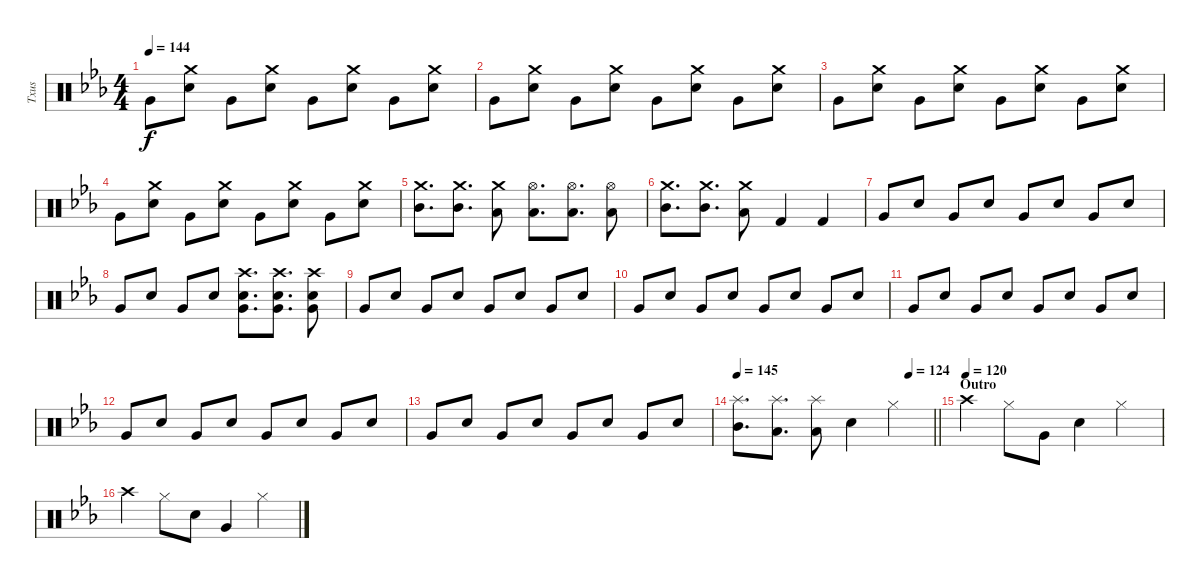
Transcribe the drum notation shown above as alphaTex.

\track ("Txus" "Txus") {instrument percussion}
\staff {score}
\articulation defaults
\ts (4 4)
\tempo 144
\clef neutral
\ks eb "Very Low Tom (hit)".8{dy f}
("Electric Snare (hit)" "Crash medium (hit)").8 "Very Low Tom (hit)".8 ("Electric Snare (hit)" "Crash medium (hit)").8 "Very Low Tom (hit)".8 ("Electric Snare (hit)" "Crash medium (hit)").8 "Very Low Tom (hit)".8 ("Electric Snare (hit)" "Crash medium (hit)").8 |
"Very Low Tom (hit)".8 ("Electric Snare (hit)" "Crash medium (hit)").8 "Very Low Tom (hit)".8 ("Electric Snare (hit)" "Crash medium (hit)").8 "Very Low Tom (hit)".8 ("Electric Snare (hit)" "Crash medium (hit)").8 "Very Low Tom (hit)".8 ("Electric Snare (hit)" "Crash medium (hit)").8 |
"Very Low Tom (hit)".8 ("Electric Snare (hit)" "Crash medium (hit)").8 "Very Low Tom (hit)".8 ("Electric Snare (hit)" "Crash medium (hit)").8 "Very Low Tom (hit)".8 ("Electric Snare (hit)" "Crash medium (hit)").8 "Very Low Tom (hit)".8 ("Electric Snare (hit)" "Crash medium (hit)").8 |
"Very Low Tom (hit)".8 ("Electric Snare (hit)" "Crash medium (hit)").8 "Very Low Tom (hit)".8 ("Electric Snare (hit)" "Crash medium (hit)").8 "Very Low Tom (hit)".8 ("Electric Snare (hit)" "Crash medium (hit)").8 "Very Low Tom (hit)".8 ("Electric Snare (hit)" "Crash medium (hit)").8 |
("Crash medium (hit)" "Mid Tom (hit)").8{d} ("Crash medium (hit)" "Mid Tom (hit)").8{d} ("Crash medium (hit)" "Low Floor Tom (hit)").8 ("Hi-Hat (open)" "Low Floor Tom (hit)").8{d} ("Hi-Hat (open)" "Low Floor Tom (hit)").8{d} ("Hi-Hat (open)" "Low Floor Tom (hit)").8 |
("Crash medium (hit)" "Mid Tom (hit)").8{d} ("Crash medium (hit)" "Mid Tom (hit)").8{d} ("Crash medium (hit)" "Low Floor Tom (hit)").8 "Kick (hit) 2".4 "Kick (hit) 2".4 |
"Very Low Tom (hit)".8 "Electric Snare (hit)".8 "Very Low Tom (hit)".8 "Electric Snare (hit)".8 "Very Low Tom (hit)".8 "Electric Snare (hit)".8 "Very Low Tom (hit)".8 "Electric Snare (hit)".8 |
"Very Low Tom (hit)".8 "Electric Snare (hit)".8 "Very Low Tom (hit)".8 "Electric Snare (hit)".8 ("Electric Snare (hit)" "Crash high (hit)" "Very Low Tom (hit)").8{d} ("Electric Snare (hit)" "Crash high (hit)" "Very Low Tom (hit)").8{d} ("Electric Snare (hit)" "Crash high (hit)" "Very Low Tom (hit)").8 |
"Very Low Tom (hit)".8 "Electric Snare (hit)".8 "Very Low Tom (hit)".8 "Electric Snare (hit)".8 "Very Low Tom (hit)".8 "Electric Snare (hit)".8 "Very Low Tom (hit)".8 "Electric Snare (hit)".8 |
"Very Low Tom (hit)".8 "Electric Snare (hit)".8 "Very Low Tom (hit)".8 "Electric Snare (hit)".8 "Very Low Tom (hit)".8 "Electric Snare (hit)".8 "Very Low Tom (hit)".8 "Electric Snare (hit)".8 |
"Very Low Tom (hit)".8 "Electric Snare (hit)".8 "Very Low Tom (hit)".8 "Electric Snare (hit)".8 "Very Low Tom (hit)".8 "Electric Snare (hit)".8 "Very Low Tom (hit)".8 "Electric Snare (hit)".8 |
"Very Low Tom (hit)".8 "Electric Snare (hit)".8 "Very Low Tom (hit)".8 "Electric Snare (hit)".8 "Very Low Tom (hit)".8 "Electric Snare (hit)".8 "Very Low Tom (hit)".8 "Electric Snare (hit)".8 |
"Very Low Tom (hit)".8 "Electric Snare (hit)".8 "Very Low Tom (hit)".8 "Electric Snare (hit)".8 "Very Low Tom (hit)".8 "Electric Snare (hit)".8 "Very Low Tom (hit)".8 "Electric Snare (hit)".8 |
\tempo (124 0.875)
\tempo 145
\barLineRight lightlight
("Splash (hit)" "Mid Tom (hit)").8{d} ("Splash (hit)" "Low Floor Tom (hit)").8{d} ("Splash (hit)" "Low Tom (hit)").8 "Snare (hit) 2".4 "Hi-Hat (closed)".4 |
\section ("" "Outro")
\tempo (120)
"Crash high (hit)".4 "Hi-Hat (closed)".8 "Very Low Tom (hit)".8 "Snare (hit) 2".4 "Hi-Hat (closed)".4 |
"Crash high (hit)".4 "Hi-Hat (closed)".8 "Snare (hit) 2".8 "Very Low Tom (hit)".4 "Hi-Hat (closed)".4
